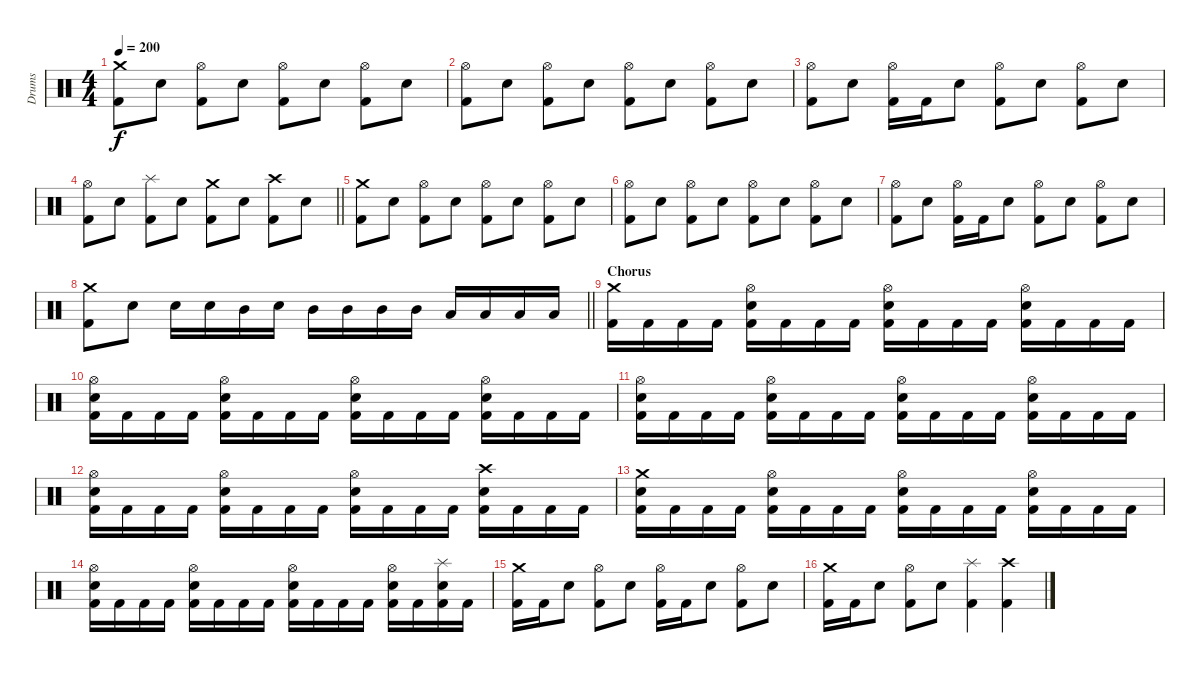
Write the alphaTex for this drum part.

\track ("Drums" "Drums") {instrument percussion}
\staff {score}
\articulation defaults
\ts (4 4)
\tempo 200
\clef neutral
\ks c
("Crash medium (hit)" "Kick (hit) 2").8{dy f} "Electric Snare (hit)".8 ("Hi-Hat (open)" "Kick (hit) 2").8 "Electric Snare (hit)".8 ("Hi-Hat (open)" "Kick (hit) 2").8 "Electric Snare (hit)".8 ("Hi-Hat (open)" "Kick (hit) 2").8 "Electric Snare (hit)".8 |
("Hi-Hat (open)" "Kick (hit) 2").8 "Electric Snare (hit)".8 ("Hi-Hat (open)" "Kick (hit) 2").8 "Electric Snare (hit)".8 ("Hi-Hat (open)" "Kick (hit) 2").8 "Electric Snare (hit)".8 ("Hi-Hat (open)" "Kick (hit) 2").8 "Electric Snare (hit)".8 |
("Hi-Hat (open)" "Kick (hit) 2").8 "Electric Snare (hit)".8 ("Hi-Hat (open)" "Kick (hit) 2").16 "Kick (hit) 2".16 "Electric Snare (hit)".8 ("Hi-Hat (open)" "Kick (hit) 2").8 "Electric Snare (hit)".8 ("Hi-Hat (open)" "Kick (hit) 2").8 "Electric Snare (hit)".8 |
\barLineRight lightlight
("Hi-Hat (open)" "Kick (hit) 2").8 "Electric Snare (hit)".8 ("Splash (hit)" "Kick (hit) 2").8 "Electric Snare (hit)".8 ("Crash medium (hit)" "Kick (hit) 2").8 "Electric Snare (hit)".8 ("Crash high (hit)" "Kick (hit) 2").8 "Electric Snare (hit)".8 |
("Crash medium (hit)" "Kick (hit) 2").8 "Electric Snare (hit)".8 ("Hi-Hat (open)" "Kick (hit) 2").8 "Electric Snare (hit)".8 ("Hi-Hat (open)" "Kick (hit) 2").8 "Electric Snare (hit)".8 ("Hi-Hat (open)" "Kick (hit) 2").8 "Electric Snare (hit)".8 |
("Hi-Hat (open)" "Kick (hit) 2").8 "Electric Snare (hit)".8 ("Hi-Hat (open)" "Kick (hit) 2").8 "Electric Snare (hit)".8 ("Hi-Hat (open)" "Kick (hit) 2").8 "Electric Snare (hit)".8 ("Hi-Hat (open)" "Kick (hit) 2").8 "Electric Snare (hit)".8 |
("Hi-Hat (open)" "Kick (hit) 2").8 "Electric Snare (hit)".8 ("Hi-Hat (open)" "Kick (hit) 2").16 "Kick (hit) 2".16 "Electric Snare (hit)".8 ("Hi-Hat (open)" "Kick (hit) 2").8 "Electric Snare (hit)".8 ("Hi-Hat (open)" "Kick (hit) 2").8 "Electric Snare (hit)".8 |
\barLineRight lightlight
("Crash medium (hit)" "Kick (hit) 2").8 "Electric Snare (hit)".8 "Electric Snare (hit)".16 "Electric Snare (hit)".16 "Mid Tom (hit)".16 "Electric Snare (hit)".16 "Mid Tom (hit)".16 "Mid Tom (hit)".16 "Mid Tom (hit)".16 "Mid Tom (hit)".16 "Low Tom (hit)".16 "Low Tom (hit)".16 "Low Tom (hit)".16 "Low Tom (hit)".16 |
\section ("" "Chorus")
("Crash medium (hit)" "Kick (hit) 2").16 "Kick (hit) 2".16 "Kick (hit) 2".16 "Kick (hit) 2".16 ("Hi-Hat (open)" "Electric Snare (hit)" "Kick (hit) 2").16 "Kick (hit) 2".16 "Kick (hit) 2".16 "Kick (hit) 2".16 ("Hi-Hat (open)" "Electric Snare (hit)" "Kick (hit) 2").16 "Kick (hit) 2".16 "Kick (hit) 2".16 "Kick (hit) 2".16 ("Hi-Hat (open)" "Electric Snare (hit)" "Kick (hit) 2").16 "Kick (hit) 2".16 "Kick (hit) 2".16 "Kick (hit) 2".16 |
("Hi-Hat (open)" "Electric Snare (hit)" "Kick (hit) 2").16 "Kick (hit) 2".16 "Kick (hit) 2".16 "Kick (hit) 2".16 ("Hi-Hat (open)" "Electric Snare (hit)" "Kick (hit) 2").16 "Kick (hit) 2".16 "Kick (hit) 2".16 "Kick (hit) 2".16 ("Hi-Hat (open)" "Electric Snare (hit)" "Kick (hit) 2").16 "Kick (hit) 2".16 "Kick (hit) 2".16 "Kick (hit) 2".16 ("Hi-Hat (open)" "Electric Snare (hit)" "Kick (hit) 2").16 "Kick (hit) 2".16 "Kick (hit) 2".16 "Kick (hit) 2".16 |
("Hi-Hat (open)" "Electric Snare (hit)" "Kick (hit) 2").16 "Kick (hit) 2".16 "Kick (hit) 2".16 "Kick (hit) 2".16 ("Hi-Hat (open)" "Electric Snare (hit)" "Kick (hit) 2").16 "Kick (hit) 2".16 "Kick (hit) 2".16 "Kick (hit) 2".16 ("Hi-Hat (open)" "Electric Snare (hit)" "Kick (hit) 2").16 "Kick (hit) 2".16 "Kick (hit) 2".16 "Kick (hit) 2".16 ("Hi-Hat (open)" "Electric Snare (hit)" "Kick (hit) 2").16 "Kick (hit) 2".16 "Kick (hit) 2".16 "Kick (hit) 2".16 |
("Hi-Hat (open)" "Electric Snare (hit)" "Kick (hit) 2").16 "Kick (hit) 2".16 "Kick (hit) 2".16 "Kick (hit) 2".16 ("Hi-Hat (open)" "Electric Snare (hit)" "Kick (hit) 2").16 "Kick (hit) 2".16 "Kick (hit) 2".16 "Kick (hit) 2".16 ("Hi-Hat (open)" "Electric Snare (hit)" "Kick (hit) 2").16 "Kick (hit) 2".16 "Kick (hit) 2".16 "Kick (hit) 2".16 ("Crash high (hit)" "Electric Snare (hit)" "Kick (hit) 2").16 "Kick (hit) 2".16 "Kick (hit) 2".16 "Kick (hit) 2".16 |
("Crash medium (hit)" "Electric Snare (hit)" "Kick (hit) 2").16 "Kick (hit) 2".16 "Kick (hit) 2".16 "Kick (hit) 2".16 ("Hi-Hat (open)" "Electric Snare (hit)" "Kick (hit) 2").16 "Kick (hit) 2".16 "Kick (hit) 2".16 "Kick (hit) 2".16 ("Hi-Hat (open)" "Electric Snare (hit)" "Kick (hit) 2").16 "Kick (hit) 2".16 "Kick (hit) 2".16 "Kick (hit) 2".16 ("Hi-Hat (open)" "Electric Snare (hit)" "Kick (hit) 2").16 "Kick (hit) 2".16 "Kick (hit) 2".16 "Kick (hit) 2".16 |
("Hi-Hat (open)" "Electric Snare (hit)" "Kick (hit) 2").16 "Kick (hit) 2".16 "Kick (hit) 2".16 "Kick (hit) 2".16 ("Hi-Hat (open)" "Electric Snare (hit)" "Kick (hit) 2").16 "Kick (hit) 2".16 "Kick (hit) 2".16 "Kick (hit) 2".16 ("Hi-Hat (open)" "Electric Snare (hit)" "Kick (hit) 2").16 "Kick (hit) 2".16 "Kick (hit) 2".16 "Kick (hit) 2".16 ("Hi-Hat (open)" "Electric Snare (hit)" "Kick (hit) 2").16 "Kick (hit) 2".16 ("Splash (hit)" "Electric Snare (hit)" "Kick (hit) 2").16 "Kick (hit) 2".16 |
("Crash medium (hit)" "Kick (hit) 2").16 "Kick (hit) 2".16 "Electric Snare (hit)".8 ("Hi-Hat (open)" "Kick (hit) 2").8 "Electric Snare (hit)".8 ("Hi-Hat (open)" "Kick (hit) 2").16 "Kick (hit) 2".16 "Electric Snare (hit)".8 ("Hi-Hat (open)" "Kick (hit) 2").8 "Electric Snare (hit)".8 |
("Crash medium (hit)" "Kick (hit) 2").16 "Kick (hit) 2".16 "Electric Snare (hit)".8 ("Hi-Hat (open)" "Kick (hit) 2").8 "Electric Snare (hit)".8 ("Splash (hit)" "Kick (hit) 2").4 ("Crash high (hit)" "Kick (hit) 2").4
